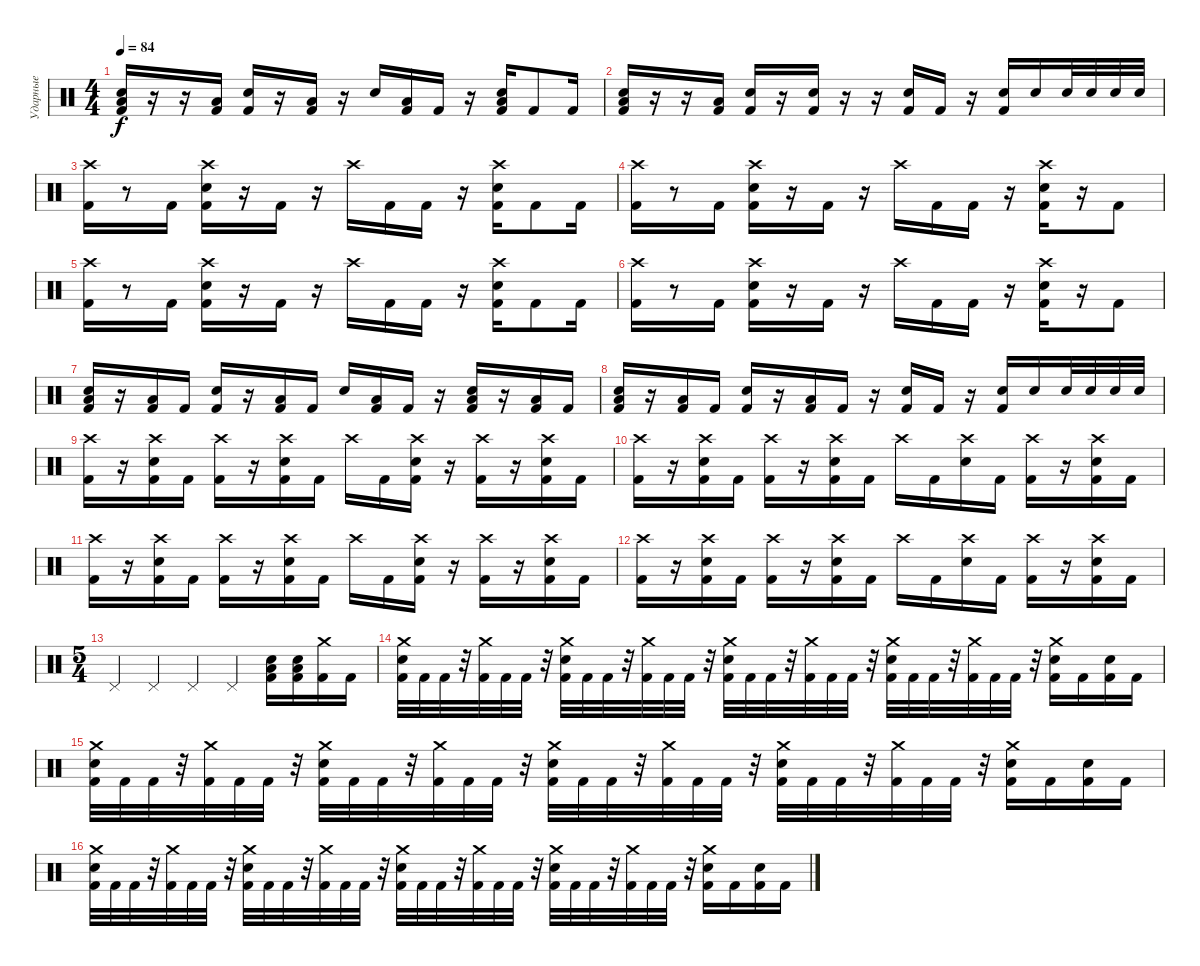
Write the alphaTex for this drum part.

\track ("Ударные" "Ударные") {instrument percussion}
\staff {score}
\articulation defaults
\ts (4 4)
\tempo 84
\clef neutral
\ks c
("Low Tom (hit)" "Snare (hit) 2" "Kick (hit) 2").16{dy f} r.16 r.16 ("Low Tom (hit)" "Kick (hit) 2").16 ("Snare (hit) 2" "Kick (hit) 2").16 r.16 ("Low Tom (hit)" "Kick (hit) 2").16 r.16 "Snare (hit) 2".16 ("Low Tom (hit)" "Kick (hit) 2").16 "Kick (hit) 2".16 r.16 ("Low Tom (hit)" "Snare (hit) 2" "Kick (hit) 2").16 "Kick (hit) 2".8 "Kick (hit) 2".16 |
("Low Tom (hit)" "Snare (hit) 2" "Kick (hit) 2").16 r.16 r.16 ("Low Tom (hit)" "Kick (hit) 2").16 ("Snare (hit) 2" "Kick (hit) 2").16 r.16 ("Snare (hit) 2" "Kick (hit) 2").16 r.16 r.16 ("Snare (hit) 2" "Kick (hit) 2").16 "Kick (hit) 2".16 r.16 ("Snare (hit) 2" "Kick (hit) 2").16 "Snare (hit) 2".16 "Snare (hit) 2".32 "Snare (hit) 2".32 "Snare (hit) 2".32 "Snare (hit) 2".32 |
("Crash high (hit)" "Kick (hit) 2").16 r.8 "Kick (hit) 2".16 ("Crash high (hit)" "Snare (hit) 2" "Kick (hit) 2").16 r.16 "Kick (hit) 2".16 r.16 "Crash high (hit)".16 "Kick (hit) 2".16 "Kick (hit) 2".16 r.16 ("Crash high (hit)" "Snare (hit) 2" "Kick (hit) 2").16 "Kick (hit) 2".8 "Kick (hit) 2".16 |
("Crash high (hit)" "Kick (hit) 2").16 r.8 "Kick (hit) 2".16 ("Crash high (hit)" "Snare (hit) 2" "Kick (hit) 2").16 r.16 "Kick (hit) 2".16 r.16 "Crash high (hit)".16 "Kick (hit) 2".16 "Kick (hit) 2".16 r.16 ("Crash high (hit)" "Snare (hit) 2" "Kick (hit) 2").16 r.16 "Kick (hit) 2".8 |
("Crash high (hit)" "Kick (hit) 2").16 r.8 "Kick (hit) 2".16 ("Crash high (hit)" "Snare (hit) 2" "Kick (hit) 2").16 r.16 "Kick (hit) 2".16 r.16 "Crash high (hit)".16 "Kick (hit) 2".16 "Kick (hit) 2".16 r.16 ("Crash high (hit)" "Snare (hit) 2" "Kick (hit) 2").16 "Kick (hit) 2".8 "Kick (hit) 2".16 |
("Crash high (hit)" "Kick (hit) 2").16 r.8 "Kick (hit) 2".16 ("Crash high (hit)" "Snare (hit) 2" "Kick (hit) 2").16 r.16 "Kick (hit) 2".16 r.16 "Crash high (hit)".16 "Kick (hit) 2".16 "Kick (hit) 2".16 r.16 ("Crash high (hit)" "Snare (hit) 2" "Kick (hit) 2").16 r.16 "Kick (hit) 2".8 |
("Low Tom (hit)" "Snare (hit) 2" "Kick (hit) 2").16 r.16 ("Low Tom (hit)" "Kick (hit) 2").16 "Kick (hit) 2".16 ("Snare (hit) 2" "Kick (hit) 2").16 r.16 ("Low Tom (hit)" "Kick (hit) 2").16 "Kick (hit) 2".16 "Snare (hit) 2".16 ("Low Tom (hit)" "Kick (hit) 2").16 "Kick (hit) 2".16 r.16 ("Low Tom (hit)" "Snare (hit) 2" "Kick (hit) 2").16 r.16 ("Low Tom (hit)" "Kick (hit) 2").16 "Kick (hit) 2".16 |
("Low Tom (hit)" "Snare (hit) 2" "Kick (hit) 2").16 r.16 ("Low Tom (hit)" "Kick (hit) 2").16 "Kick (hit) 2".16 ("Snare (hit) 2" "Kick (hit) 2").16 r.16 ("Low Tom (hit)" "Kick (hit) 2").16 "Kick (hit) 2".16 r.16 ("Snare (hit) 2" "Kick (hit) 2").16 "Kick (hit) 2".16 r.16 ("Snare (hit) 2" "Kick (hit) 2").16 "Snare (hit) 2".16 "Snare (hit) 2".32 "Snare (hit) 2".32 "Snare (hit) 2".32 "Snare (hit) 2".32 |
("Crash high (hit)" "Kick (hit) 2").16 r.16 ("Crash high (hit)" "Snare (hit) 2" "Kick (hit) 2").16 "Kick (hit) 2".16 ("Crash high (hit)" "Kick (hit) 2").16 r.16 ("Crash high (hit)" "Snare (hit) 2" "Kick (hit) 2").16 "Kick (hit) 2".16 "Crash high (hit)".16 "Kick (hit) 2".16 ("Crash high (hit)" "Snare (hit) 2" "Kick (hit) 2").16 r.16 ("Crash high (hit)" "Kick (hit) 2").16 r.16 ("Crash high (hit)" "Snare (hit) 2" "Kick (hit) 2").16 "Kick (hit) 2".16 |
("Crash high (hit)" "Kick (hit) 2").16 r.16 ("Crash high (hit)" "Snare (hit) 2" "Kick (hit) 2").16 "Kick (hit) 2".16 ("Crash high (hit)" "Kick (hit) 2").16 r.16 ("Crash high (hit)" "Snare (hit) 2" "Kick (hit) 2").16 "Kick (hit) 2".16 "Crash high (hit)".16 "Kick (hit) 2".16 ("Crash high (hit)" "Snare (hit) 2").16 "Kick (hit) 2".16 ("Crash high (hit)" "Kick (hit) 2").16 r.16 ("Crash high (hit)" "Snare (hit) 2" "Kick (hit) 2").16 "Kick (hit) 2".16 |
("Crash high (hit)" "Kick (hit) 2").16 r.16 ("Crash high (hit)" "Snare (hit) 2" "Kick (hit) 2").16 "Kick (hit) 2".16 ("Crash high (hit)" "Kick (hit) 2").16 r.16 ("Crash high (hit)" "Snare (hit) 2" "Kick (hit) 2").16 "Kick (hit) 2".16 "Crash high (hit)".16 "Kick (hit) 2".16 ("Crash high (hit)" "Snare (hit) 2" "Kick (hit) 2").16 r.16 ("Crash high (hit)" "Kick (hit) 2").16 r.16 ("Crash high (hit)" "Snare (hit) 2" "Kick (hit) 2").16 "Kick (hit) 2".16 |
("Crash high (hit)" "Kick (hit) 2").16 r.16 ("Crash high (hit)" "Snare (hit) 2" "Kick (hit) 2").16 "Kick (hit) 2".16 ("Crash high (hit)" "Kick (hit) 2").16 r.16 ("Crash high (hit)" "Snare (hit) 2" "Kick (hit) 2").16 "Kick (hit) 2".16 "Crash high (hit)".16 "Kick (hit) 2".16 ("Crash high (hit)" "Snare (hit) 2").16 "Kick (hit) 2".16 ("Crash high (hit)" "Kick (hit) 2").16 r.16 ("Crash high (hit)" "Snare (hit) 2" "Kick (hit) 2").16 "Kick (hit) 2".16 |
\ts (5 4)
"Pedal Hi-Hat (hit)".4 "Pedal Hi-Hat (hit)".4 "Pedal Hi-Hat (hit)".4 "Pedal Hi-Hat (hit)".4 ("Low Tom (hit)" "Snare (hit) 2" "Kick (hit) 2").16 ("Low Tom (hit)" "Snare (hit) 2" "Kick (hit) 2").16 ("Crash medium (hit)" "Kick (hit) 2").16 "Kick (hit) 2".16 |
("Crash medium (hit)" "Snare (hit) 2" "Kick (hit) 2").32 "Kick (hit) 2".32 "Kick (hit) 2".32 r.32 ("Crash medium (hit)" "Kick (hit) 2").32 "Kick (hit) 2".32 "Kick (hit) 2".32 r.32 ("Crash medium (hit)" "Snare (hit) 2" "Kick (hit) 2").32 "Kick (hit) 2".32 "Kick (hit) 2".32 r.32 ("Crash medium (hit)" "Kick (hit) 2").32 "Kick (hit) 2".32 "Kick (hit) 2".32 r.32 ("Crash medium (hit)" "Snare (hit) 2" "Kick (hit) 2").32 "Kick (hit) 2".32 "Kick (hit) 2".32 r.32 ("Crash medium (hit)" "Kick (hit) 2").32 "Kick (hit) 2".32 "Kick (hit) 2".32 r.32 ("Crash medium (hit)" "Snare (hit) 2" "Kick (hit) 2").32 "Kick (hit) 2".32 "Kick (hit) 2".32 r.32 ("Crash medium (hit)" "Kick (hit) 2").32 "Kick (hit) 2".32 "Kick (hit) 2".32 r.32 ("Crash medium (hit)" "Snare (hit) 2" "Kick (hit) 2").16 "Kick (hit) 2".16 ("Snare (hit) 2" "Kick (hit) 2").16 "Kick (hit) 2".16 |
("Crash medium (hit)" "Snare (hit) 2" "Kick (hit) 2").32 "Kick (hit) 2".32 "Kick (hit) 2".32 r.32 ("Crash medium (hit)" "Kick (hit) 2").32 "Kick (hit) 2".32 "Kick (hit) 2".32 r.32 ("Crash medium (hit)" "Snare (hit) 2" "Kick (hit) 2").32 "Kick (hit) 2".32 "Kick (hit) 2".32 r.32 ("Crash medium (hit)" "Kick (hit) 2").32 "Kick (hit) 2".32 "Kick (hit) 2".32 r.32 ("Crash medium (hit)" "Snare (hit) 2" "Kick (hit) 2").32 "Kick (hit) 2".32 "Kick (hit) 2".32 r.32 ("Crash medium (hit)" "Kick (hit) 2").32 "Kick (hit) 2".32 "Kick (hit) 2".32 r.32 ("Crash medium (hit)" "Snare (hit) 2" "Kick (hit) 2").32 "Kick (hit) 2".32 "Kick (hit) 2".32 r.32 ("Crash medium (hit)" "Kick (hit) 2").32 "Kick (hit) 2".32 "Kick (hit) 2".32 r.32 ("Crash medium (hit)" "Snare (hit) 2" "Kick (hit) 2").16 "Kick (hit) 2".16 ("Snare (hit) 2" "Kick (hit) 2").16 "Kick (hit) 2".16 |
("Crash medium (hit)" "Snare (hit) 2" "Kick (hit) 2").32 "Kick (hit) 2".32 "Kick (hit) 2".32 r.32 ("Crash medium (hit)" "Kick (hit) 2").32 "Kick (hit) 2".32 "Kick (hit) 2".32 r.32 ("Crash medium (hit)" "Snare (hit) 2" "Kick (hit) 2").32 "Kick (hit) 2".32 "Kick (hit) 2".32 r.32 ("Crash medium (hit)" "Kick (hit) 2").32 "Kick (hit) 2".32 "Kick (hit) 2".32 r.32 ("Crash medium (hit)" "Snare (hit) 2" "Kick (hit) 2").32 "Kick (hit) 2".32 "Kick (hit) 2".32 r.32 ("Crash medium (hit)" "Kick (hit) 2").32 "Kick (hit) 2".32 "Kick (hit) 2".32 r.32 ("Crash medium (hit)" "Snare (hit) 2" "Kick (hit) 2").32 "Kick (hit) 2".32 "Kick (hit) 2".32 r.32 ("Crash medium (hit)" "Kick (hit) 2").32 "Kick (hit) 2".32 "Kick (hit) 2".32 r.32 ("Crash medium (hit)" "Snare (hit) 2" "Kick (hit) 2").16 "Kick (hit) 2".16 ("Snare (hit) 2" "Kick (hit) 2").16 "Kick (hit) 2".16
